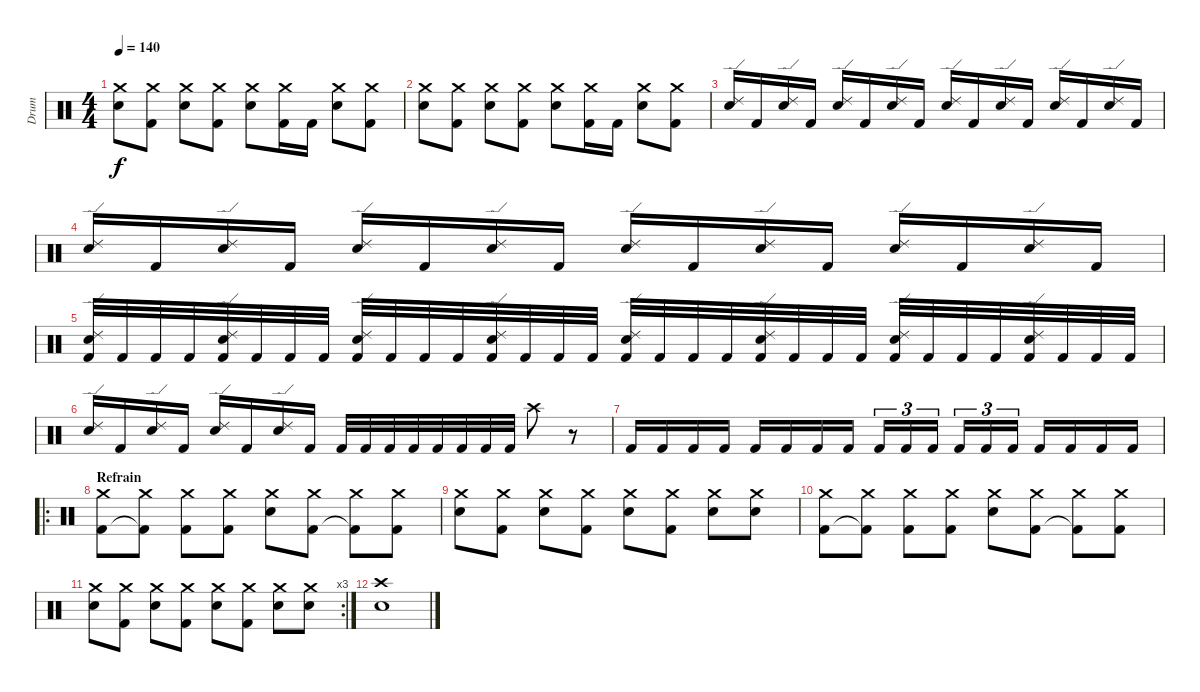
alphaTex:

\track ("Drum" "Drum") {instrument percussion}
\staff {score}
\articulation defaults
\ts (4 4)
\tempo 140
\clef neutral
\ks c
("Crash medium (hit)" "Electric Snare (hit)").8{dy f} ("Crash medium (hit)" "Kick (hit) 2").8 ("Crash medium (hit)" "Electric Snare (hit)").8 ("Crash medium (hit)" "Kick (hit) 2").8 ("Crash medium (hit)" "Electric Snare (hit)").8 ("Crash medium (hit)" "Kick (hit) 2").16 "Kick (hit) 2".16 ("Crash medium (hit)" "Electric Snare (hit)").8 ("Crash medium (hit)" "Kick (hit) 2").8 |
("Crash medium (hit)" "Electric Snare (hit)").8 ("Crash medium (hit)" "Kick (hit) 2").8 ("Crash medium (hit)" "Electric Snare (hit)").8 ("Crash medium (hit)" "Kick (hit) 2").8 ("Crash medium (hit)" "Electric Snare (hit)").8 ("Crash medium (hit)" "Kick (hit) 2").16 "Kick (hit) 2".16 ("Crash medium (hit)" "Electric Snare (hit)").8 ("Crash medium (hit)" "Kick (hit) 2").8 |
("Ride (edge) 2" "Electric Snare (hit)").16 "Kick (hit) 2".16 ("Ride (edge) 2" "Electric Snare (hit)").16 "Kick (hit) 2".16 ("Ride (edge) 2" "Electric Snare (hit)").16 "Kick (hit) 2".16 ("Ride (edge) 2" "Electric Snare (hit)").16 "Kick (hit) 2".16 ("Ride (edge) 2" "Electric Snare (hit)").16 "Kick (hit) 2".16 ("Ride (edge) 2" "Electric Snare (hit)").16 "Kick (hit) 2".16 ("Ride (edge) 2" "Electric Snare (hit)").16 "Kick (hit) 2".16 ("Ride (edge) 2" "Electric Snare (hit)").16 "Kick (hit) 2".16 |
("Ride (edge) 2" "Electric Snare (hit)").16 "Kick (hit) 2".16 ("Ride (edge) 2" "Electric Snare (hit)").16 "Kick (hit) 2".16 ("Ride (edge) 2" "Electric Snare (hit)").16 "Kick (hit) 2".16 ("Ride (edge) 2" "Electric Snare (hit)").16 "Kick (hit) 2".16 ("Ride (edge) 2" "Electric Snare (hit)").16 "Kick (hit) 2".16 ("Ride (edge) 2" "Electric Snare (hit)").16 "Kick (hit) 2".16 ("Ride (edge) 2" "Electric Snare (hit)").16 "Kick (hit) 2".16 ("Ride (edge) 2" "Electric Snare (hit)").16 "Kick (hit) 2".16 |
("Ride (edge) 2" "Electric Snare (hit)" "Kick (hit) 2").32 "Kick (hit) 2".32 "Kick (hit) 2".32 "Kick (hit) 2".32 ("Ride (edge) 2" "Electric Snare (hit)" "Kick (hit) 2").32 "Kick (hit) 2".32 "Kick (hit) 2".32 "Kick (hit) 2".32 ("Ride (edge) 2" "Electric Snare (hit)" "Kick (hit) 2").32 "Kick (hit) 2".32 "Kick (hit) 2".32 "Kick (hit) 2".32 ("Ride (edge) 2" "Electric Snare (hit)" "Kick (hit) 2").32 "Kick (hit) 2".32 "Kick (hit) 2".32 "Kick (hit) 2".32 ("Ride (edge) 2" "Electric Snare (hit)" "Kick (hit) 2").32 "Kick (hit) 2".32 "Kick (hit) 2".32 "Kick (hit) 2".32 ("Ride (edge) 2" "Electric Snare (hit)" "Kick (hit) 2").32 "Kick (hit) 2".32 "Kick (hit) 2".32 "Kick (hit) 2".32 ("Ride (edge) 2" "Electric Snare (hit)" "Kick (hit) 2").32 "Kick (hit) 2".32 "Kick (hit) 2".32 "Kick (hit) 2".32 ("Ride (edge) 2" "Electric Snare (hit)" "Kick (hit) 2").32 "Kick (hit) 2".32 "Kick (hit) 2".32 "Kick (hit) 2".32 |
("Ride (edge) 2" "Electric Snare (hit)").16 "Kick (hit) 2".16 ("Ride (edge) 2" "Electric Snare (hit)").16 "Kick (hit) 2".16 ("Ride (edge) 2" "Electric Snare (hit)").16 "Kick (hit) 2".16 ("Ride (edge) 2" "Electric Snare (hit)").16 "Kick (hit) 2".16 "Kick (hit) 2".32 "Kick (hit) 2".32 "Kick (hit) 2".32 "Kick (hit) 2".32 "Kick (hit) 2".32 "Kick (hit) 2".32 "Kick (hit) 2".32 "Kick (hit) 2".32 "Crash high (hit)".8 r.8 |
"Kick (hit) 2".16 "Kick (hit) 2".16 "Kick (hit) 2".16 "Kick (hit) 2".16 "Kick (hit) 2".16 "Kick (hit) 2".16 "Kick (hit) 2".16 "Kick (hit) 2".16 "Kick (hit) 2".16{tu (3 2)} "Kick (hit) 2".16{tu (3 2)} "Kick (hit) 2".16{tu (3 2)} "Kick (hit) 2".16{tu (3 2)} "Kick (hit) 2".16{tu (3 2)} "Kick (hit) 2".16{tu (3 2)} "Kick (hit) 2".16 "Kick (hit) 2".16 "Kick (hit) 2".16 "Kick (hit) 2".16 |
\ro
\section ("" "Refrain")
("Crash medium (hit)" "Kick (hit) 2").8 ("Crash medium (hit)" "Kick (hit) 2"{t}).8 ("Crash medium (hit)" "Kick (hit) 2").8 ("Crash medium (hit)" "Kick (hit) 2").8 ("Crash medium (hit)" "Electric Snare (hit)").8 ("Crash medium (hit)" "Kick (hit) 2").8 ("Crash medium (hit)" "Kick (hit) 2"{t}).8 ("Crash medium (hit)" "Kick (hit) 2").8 |
("Crash medium (hit)" "Electric Snare (hit)").8 ("Crash medium (hit)" "Kick (hit) 2").8 ("Crash medium (hit)" "Electric Snare (hit)").8 ("Crash medium (hit)" "Kick (hit) 2").8 ("Crash medium (hit)" "Electric Snare (hit)").8 ("Crash medium (hit)" "Kick (hit) 2").8 ("Crash medium (hit)" "Electric Snare (hit)").8 ("Crash medium (hit)" "Electric Snare (hit)").8 |
("Crash medium (hit)" "Kick (hit) 2").8 ("Crash medium (hit)" "Kick (hit) 2"{t}).8 ("Crash medium (hit)" "Kick (hit) 2").8 ("Crash medium (hit)" "Kick (hit) 2").8 ("Crash medium (hit)" "Electric Snare (hit)").8 ("Crash medium (hit)" "Kick (hit) 2").8 ("Crash medium (hit)" "Kick (hit) 2"{t}).8 ("Crash medium (hit)" "Kick (hit) 2").8 |
\rc 3
("Crash medium (hit)" "Electric Snare (hit)").8 ("Crash medium (hit)" "Kick (hit) 2").8 ("Crash medium (hit)" "Electric Snare (hit)").8 ("Crash medium (hit)" "Kick (hit) 2").8 ("Crash medium (hit)" "Electric Snare (hit)").8 ("Crash medium (hit)" "Kick (hit) 2").8 ("Crash medium (hit)" "Electric Snare (hit)").8 ("Crash medium (hit)" "Electric Snare (hit)").8 |
("Crash high (hit)" "Electric Snare (hit)").1
